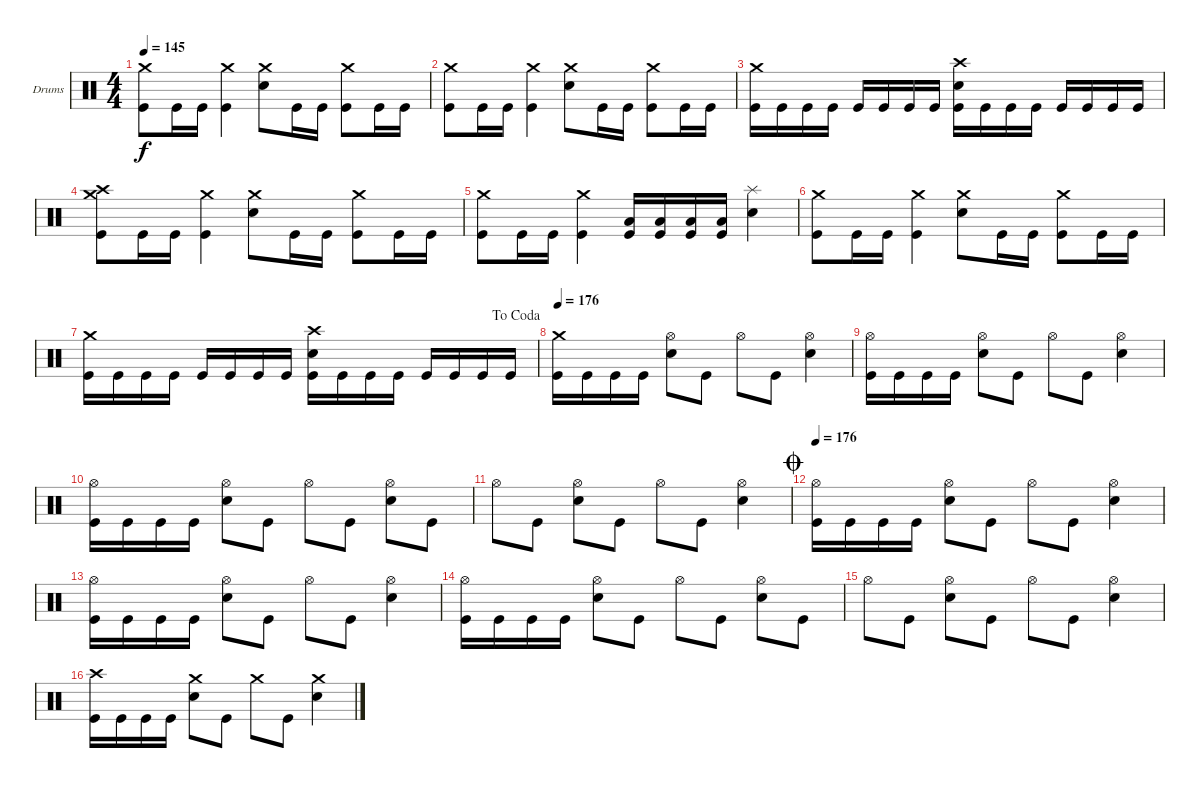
\bracketExtendMode groupsimilarinstruments
\firstSystemTrackNameOrientation horizontal
\otherSystemsTrackNameOrientation horizontal
\track ("Drumkit" "Drums") {instrument percussion}
\staff {score}
\articulation defaults
\ts (4 4)
\tempo 145
\clef neutral
\ks c
("Crash medium (hit)" "Kick (hit)").8{dy f} "Kick (hit)".16 "Kick (hit)".16 ("Crash medium (hit)" "Kick (hit)").4 ("Crash medium (hit)" "Snare (hit) 2").8 "Kick (hit)".16 "Kick (hit)".16 ("Crash medium (hit)" "Kick (hit)").8 "Kick (hit)".16 "Kick (hit)".16 |
("Crash medium (hit)" "Kick (hit)").8 "Kick (hit)".16 "Kick (hit)".16 ("Crash medium (hit)" "Kick (hit)").4 ("Crash medium (hit)" "Snare (hit) 2").8 "Kick (hit)".16 "Kick (hit)".16 ("Crash medium (hit)" "Kick (hit)").8 "Kick (hit)".16 "Kick (hit)".16 |
("Crash medium (hit)" "Kick (hit)").16 "Kick (hit)".16 "Kick (hit)".16 "Kick (hit)".16 "Kick (hit)".16 "Kick (hit)".16 "Kick (hit)".16 "Kick (hit)".16 ("Crash high (hit)" "Snare (hit) 2" "Kick (hit)").16 "Kick (hit)".16 "Kick (hit)".16 "Kick (hit)".16 "Kick (hit)".16 "Kick (hit)".16 "Kick (hit)".16 "Kick (hit)".16 |
("Crash medium (hit)" "Crash high (hit)" "Kick (hit)").8 "Kick (hit)".16 "Kick (hit)".16 ("Crash medium (hit)" "Kick (hit)").4 ("Crash medium (hit)" "Snare (hit) 2").8 "Kick (hit)".16 "Kick (hit)".16 ("Crash medium (hit)" "Kick (hit)").8 "Kick (hit)".16 "Kick (hit)".16 |
("Crash medium (hit)" "Kick (hit)").8 "Kick (hit)".16 "Kick (hit)".16 ("Crash medium (hit)" "Kick (hit)").4 ("Low Tom (hit)" "Kick (hit)").16 ("Low Tom (hit)" "Kick (hit)").16 ("Low Tom (hit)" "Kick (hit)").16 ("Low Tom (hit)" "Kick (hit)").16 ("Splash (hit)" "Snare (hit) 2").4 |
("Crash medium (hit)" "Kick (hit)").8 "Kick (hit)".16 "Kick (hit)".16 ("Crash medium (hit)" "Kick (hit)").4 ("Crash medium (hit)" "Snare (hit) 2").8 "Kick (hit)".16 "Kick (hit)".16 ("Crash medium (hit)" "Kick (hit)").8 "Kick (hit)".16 "Kick (hit)".16 |
\jump dacoda
("Crash medium (hit)" "Kick (hit)").16 "Kick (hit)".16 "Kick (hit)".16 "Kick (hit)".16 "Kick (hit)".16 "Kick (hit)".16 "Kick (hit)".16 "Kick (hit)".16 ("Crash high (hit)" "Snare (hit) 2" "Kick (hit)").16 "Kick (hit)".16 "Kick (hit)".16 "Kick (hit)".16 "Kick (hit)".16 "Kick (hit)".16 "Kick (hit)".16 "Kick (hit)".16 |
\tempo 176
("Crash medium (hit)" "Kick (hit)").16 "Kick (hit)".16 "Kick (hit)".16 "Kick (hit)".16 ("Hi-Hat (open)" "Snare (hit) 2").8 "Kick (hit)".8 "Hi-Hat (open)".8 "Kick (hit)".8 ("Hi-Hat (open)" "Snare (hit) 2").4 |
("Hi-Hat (open)" "Kick (hit)").16 "Kick (hit)".16 "Kick (hit)".16 "Kick (hit)".16 ("Hi-Hat (open)" "Snare (hit) 2").8 "Kick (hit)".8 "Hi-Hat (open)".8 "Kick (hit)".8 ("Hi-Hat (open)" "Snare (hit) 2").4 |
("Hi-Hat (open)" "Kick (hit)").16 "Kick (hit)".16 "Kick (hit)".16 "Kick (hit)".16 ("Hi-Hat (open)" "Snare (hit) 2").8 "Kick (hit)".8 "Hi-Hat (open)".8 "Kick (hit)".8 ("Hi-Hat (open)" "Snare (hit) 2").8 "Kick (hit)".8 |
"Hi-Hat (open)".8 "Kick (hit)".8 ("Hi-Hat (open)" "Snare (hit) 2").8 "Kick (hit)".8 "Hi-Hat (open)".8 "Kick (hit)".8 ("Hi-Hat (open)" "Snare (hit) 2").4 |
\jump coda
\tempo 176
("Hi-Hat (open)" "Kick (hit)").16 "Kick (hit)".16 "Kick (hit)".16 "Kick (hit)".16 ("Hi-Hat (open)" "Snare (hit) 2").8 "Kick (hit)".8 "Hi-Hat (open)".8 "Kick (hit)".8 ("Hi-Hat (open)" "Snare (hit) 2").4 |
("Hi-Hat (open)" "Kick (hit)").16 "Kick (hit)".16 "Kick (hit)".16 "Kick (hit)".16 ("Hi-Hat (open)" "Snare (hit) 2").8 "Kick (hit)".8 "Hi-Hat (open)".8 "Kick (hit)".8 ("Hi-Hat (open)" "Snare (hit) 2").4 |
("Hi-Hat (open)" "Kick (hit)").16 "Kick (hit)".16 "Kick (hit)".16 "Kick (hit)".16 ("Hi-Hat (open)" "Snare (hit) 2").8 "Kick (hit)".8 "Hi-Hat (open)".8 "Kick (hit)".8 ("Hi-Hat (open)" "Snare (hit) 2").8 "Kick (hit)".8 |
"Hi-Hat (open)".8 "Kick (hit)".8 ("Hi-Hat (open)" "Snare (hit) 2").8 "Kick (hit)".8 "Hi-Hat (open)".8 "Kick (hit)".8 ("Hi-Hat (open)" "Snare (hit) 2").4 |
("Crash high (hit)" "Kick (hit)").16 "Kick (hit)".16 "Kick (hit)".16 "Kick (hit)".16 ("Crash medium (hit)" "Snare (hit) 2").8 "Kick (hit)".8 "Crash medium (hit)".8 "Kick (hit)".8 ("Crash medium (hit)" "Snare (hit) 2").4
